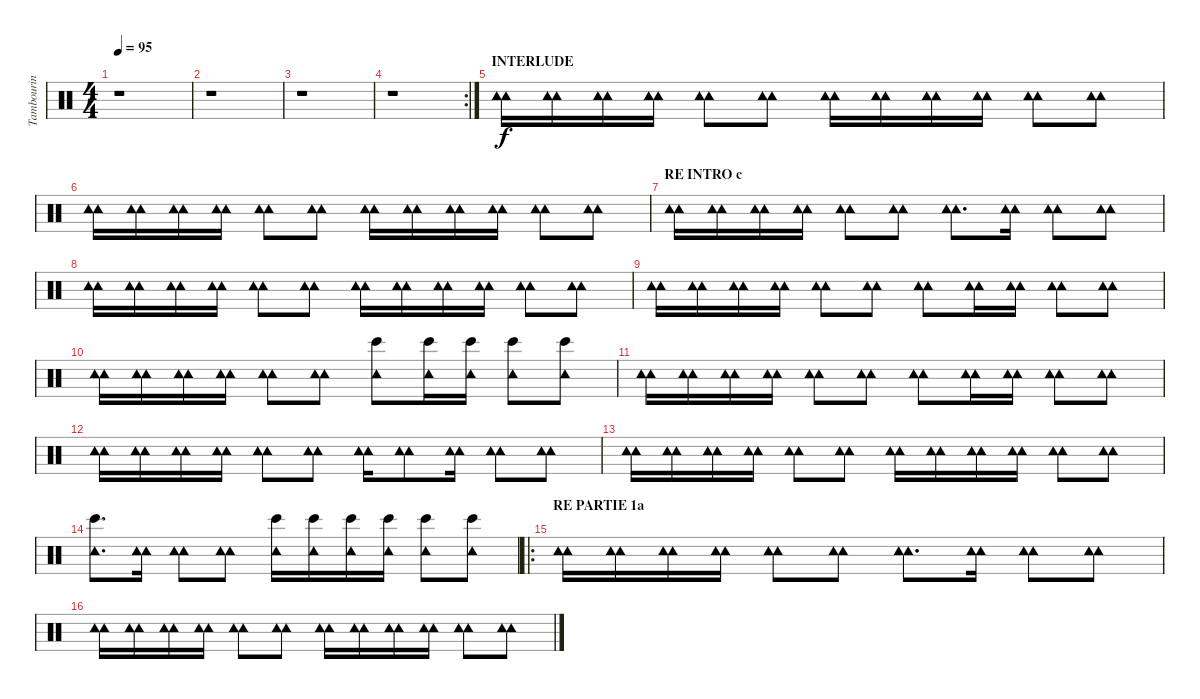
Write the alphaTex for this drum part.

\track ("Tambourin" "Tambourin") {instrument percussion}
\staff {score}
\articulation defaults
\ts (4 4)
\tempo 95
\clef neutral
\ks c
r.1{dy f} |
r.1 |
r.1 |
\rc 2
r.1 |
\section ("" "INTERLUDE")
("Tambourine (hit)" "Tambourine (hit)").16 ("Tambourine (hit)" "Tambourine (hit)").16 ("Tambourine (hit)" "Tambourine (hit)").16 ("Tambourine (hit)" "Tambourine (hit)").16 ("Tambourine (hit)" "Tambourine (hit)").8 ("Tambourine (hit)" "Tambourine (hit)").8 ("Tambourine (hit)" "Tambourine (hit)").16 ("Tambourine (hit)" "Tambourine (hit)").16 ("Tambourine (hit)" "Tambourine (hit)").16 ("Tambourine (hit)" "Tambourine (hit)").16 ("Tambourine (hit)" "Tambourine (hit)").8 ("Tambourine (hit)" "Tambourine (hit)").8 |
("Tambourine (hit)" "Tambourine (hit)").16 ("Tambourine (hit)" "Tambourine (hit)").16 ("Tambourine (hit)" "Tambourine (hit)").16 ("Tambourine (hit)" "Tambourine (hit)").16 ("Tambourine (hit)" "Tambourine (hit)").8 ("Tambourine (hit)" "Tambourine (hit)").8 ("Tambourine (hit)" "Tambourine (hit)").16 ("Tambourine (hit)" "Tambourine (hit)").16 ("Tambourine (hit)" "Tambourine (hit)").16 ("Tambourine (hit)" "Tambourine (hit)").16 ("Tambourine (hit)" "Tambourine (hit)").8 ("Tambourine (hit)" "Tambourine (hit)").8 |
\section ("" "RE INTRO c")
("Tambourine (hit)" "Tambourine (hit)").16 ("Tambourine (hit)" "Tambourine (hit)").16 ("Tambourine (hit)" "Tambourine (hit)").16 ("Tambourine (hit)" "Tambourine (hit)").16 ("Tambourine (hit)" "Tambourine (hit)").8 ("Tambourine (hit)" "Tambourine (hit)").8 ("Tambourine (hit)" "Tambourine (hit)").8{d} ("Tambourine (hit)" "Tambourine (hit)").16 ("Tambourine (hit)" "Tambourine (hit)").8 ("Tambourine (hit)" "Tambourine (hit)").8 |
("Tambourine (hit)" "Tambourine (hit)").16 ("Tambourine (hit)" "Tambourine (hit)").16 ("Tambourine (hit)" "Tambourine (hit)").16 ("Tambourine (hit)" "Tambourine (hit)").16 ("Tambourine (hit)" "Tambourine (hit)").8 ("Tambourine (hit)" "Tambourine (hit)").8 ("Tambourine (hit)" "Tambourine (hit)").16 ("Tambourine (hit)" "Tambourine (hit)").16 ("Tambourine (hit)" "Tambourine (hit)").16 ("Tambourine (hit)" "Tambourine (hit)").16 ("Tambourine (hit)" "Tambourine (hit)").8 ("Tambourine (hit)" "Tambourine (hit)").8 |
("Tambourine (hit)" "Tambourine (hit)").16 ("Tambourine (hit)" "Tambourine (hit)").16 ("Tambourine (hit)" "Tambourine (hit)").16 ("Tambourine (hit)" "Tambourine (hit)").16 ("Tambourine (hit)" "Tambourine (hit)").8 ("Tambourine (hit)" "Tambourine (hit)").8 ("Tambourine (hit)" "Tambourine (hit)").8 ("Tambourine (hit)" "Tambourine (hit)").16 ("Tambourine (hit)" "Tambourine (hit)").16 ("Tambourine (hit)" "Tambourine (hit)").8 ("Tambourine (hit)" "Tambourine (hit)").8 |
("Tambourine (hit)" "Tambourine (hit)").16 ("Tambourine (hit)" "Tambourine (hit)").16 ("Tambourine (hit)" "Tambourine (hit)").16 ("Tambourine (hit)" "Tambourine (hit)").16 ("Tambourine (hit)" "Tambourine (hit)").8 ("Tambourine (hit)" "Tambourine (hit)").8 ("Tambourine (hit)" "Bongo High (hit)").8 ("Tambourine (hit)" "Bongo High (hit)").16 ("Tambourine (hit)" "Bongo High (hit)").16 ("Tambourine (hit)" "Bongo High (hit)").8 ("Tambourine (hit)" "Bongo High (hit)").8 |
("Tambourine (hit)" "Tambourine (hit)").16 ("Tambourine (hit)" "Tambourine (hit)").16 ("Tambourine (hit)" "Tambourine (hit)").16 ("Tambourine (hit)" "Tambourine (hit)").16 ("Tambourine (hit)" "Tambourine (hit)").8 ("Tambourine (hit)" "Tambourine (hit)").8 ("Tambourine (hit)" "Tambourine (hit)").8 ("Tambourine (hit)" "Tambourine (hit)").16 ("Tambourine (hit)" "Tambourine (hit)").16 ("Tambourine (hit)" "Tambourine (hit)").8 ("Tambourine (hit)" "Tambourine (hit)").8 |
("Tambourine (hit)" "Tambourine (hit)").16 ("Tambourine (hit)" "Tambourine (hit)").16 ("Tambourine (hit)" "Tambourine (hit)").16 ("Tambourine (hit)" "Tambourine (hit)").16 ("Tambourine (hit)" "Tambourine (hit)").8 ("Tambourine (hit)" "Tambourine (hit)").8 ("Tambourine (hit)" "Tambourine (hit)").16 ("Tambourine (hit)" "Tambourine (hit)").8 ("Tambourine (hit)" "Tambourine (hit)").16 ("Tambourine (hit)" "Tambourine (hit)").8 ("Tambourine (hit)" "Tambourine (hit)").8 |
("Tambourine (hit)" "Tambourine (hit)").16 ("Tambourine (hit)" "Tambourine (hit)").16 ("Tambourine (hit)" "Tambourine (hit)").16 ("Tambourine (hit)" "Tambourine (hit)").16 ("Tambourine (hit)" "Tambourine (hit)").8 ("Tambourine (hit)" "Tambourine (hit)").8 ("Tambourine (hit)" "Tambourine (hit)").16 ("Tambourine (hit)" "Tambourine (hit)").16 ("Tambourine (hit)" "Tambourine (hit)").16 ("Tambourine (hit)" "Tambourine (hit)").16 ("Tambourine (hit)" "Tambourine (hit)").8 ("Tambourine (hit)" "Tambourine (hit)").8 |
("Tambourine (hit)" "Bongo High (hit)").8{d} ("Tambourine (hit)" "Tambourine (hit)").16 ("Tambourine (hit)" "Tambourine (hit)").8 ("Tambourine (hit)" "Tambourine (hit)").8 ("Tambourine (hit)" "Bongo High (hit)").16 ("Tambourine (hit)" "Bongo High (hit)").16 ("Tambourine (hit)" "Bongo High (hit)").16 ("Tambourine (hit)" "Bongo High (hit)").16 ("Tambourine (hit)" "Bongo High (hit)").8 ("Tambourine (hit)" "Bongo High (hit)").8 |
\ro
\section ("" "RE PARTIE 1a")
("Tambourine (hit)" "Tambourine (hit)").16 ("Tambourine (hit)" "Tambourine (hit)").16 ("Tambourine (hit)" "Tambourine (hit)").16 ("Tambourine (hit)" "Tambourine (hit)").16 ("Tambourine (hit)" "Tambourine (hit)").8 ("Tambourine (hit)" "Tambourine (hit)").8 ("Tambourine (hit)" "Tambourine (hit)").8{d} ("Tambourine (hit)" "Tambourine (hit)").16 ("Tambourine (hit)" "Tambourine (hit)").8 ("Tambourine (hit)" "Tambourine (hit)").8 |
("Tambourine (hit)" "Tambourine (hit)").16 ("Tambourine (hit)" "Tambourine (hit)").16 ("Tambourine (hit)" "Tambourine (hit)").16 ("Tambourine (hit)" "Tambourine (hit)").16 ("Tambourine (hit)" "Tambourine (hit)").8 ("Tambourine (hit)" "Tambourine (hit)").8 ("Tambourine (hit)" "Tambourine (hit)").16 ("Tambourine (hit)" "Tambourine (hit)").16 ("Tambourine (hit)" "Tambourine (hit)").16 ("Tambourine (hit)" "Tambourine (hit)").16 ("Tambourine (hit)" "Tambourine (hit)").8 ("Tambourine (hit)" "Tambourine (hit)").8
